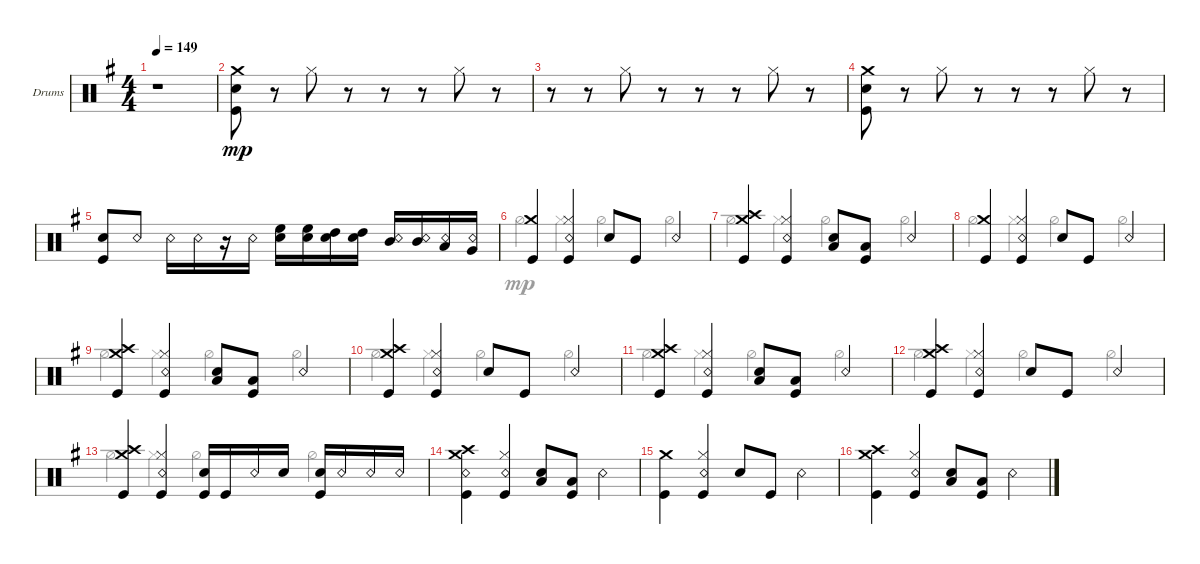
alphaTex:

\defaultSystemsLayout 4
\bracketExtendMode groupsimilarinstruments
\firstSystemTrackNameOrientation horizontal
\otherSystemsTrackNameOrientation horizontal
\track ("Drumkit" "Drums") {instrument percussion}
\staff {score}
\articulation defaults
\voice
\ts (4 4)
\tempo 149
\clef neutral
\scale
0.670588
\ks eminor
r.1{dy mp} |
\scale
0.329412 ("Kick (hit)" "Snare (hit) 2" "Crash medium (hit)").8 r.8 "Hi-Hat (closed)".8 r.8 r.8 r.8 "Hi-Hat (closed)".8 r.8 |
\scale
0.5 r.8 r.8 "Hi-Hat (closed)".8 r.8 r.8 r.8 "Hi-Hat (closed)".8 r.8 |
\scale
0.5 ("Kick (hit)" "Snare (hit) 2" "Crash medium (hit)").8 r.8 "Hi-Hat (closed)".8 r.8 r.8 r.8 "Hi-Hat (closed)".8 r.8 |
\scale
0.5 ("Kick (hit)" "Snare (hit) 2").8 "Snare (rim shot)".8 "Snare (rim shot)".16 "Snare (rim shot)".16 r.16 "Snare (rim shot)".16 ("Snare (hit) 2" "High Floor Tom (hit)").16 ("Snare (hit) 2" "High Floor Tom (hit)").16 ("Snare (hit) 2" "High Tom (hit)").16 ("Snare (hit) 2" "High Tom (hit)").16 ("Snare (rim shot)" "Mid Tom (hit)").16 ("Snare (rim shot)" "Mid Tom (hit)").16 ("Snare (rim shot)" "Low Tom (hit)").16 ("Snare (rim shot)" "Very Low Tom (hit)").16 |
\scale
0.5 ("Kick (hit)" "Crash medium (hit)").4 ("Snare (rim shot)" "Hi-Hat (closed)" "Kick (hit)").4 "Snare (hit) 2".8 "Kick (hit)".8 "Snare (rim shot)".4 |
\scale
0.5 ("Kick (hit)" "Crash medium (hit)" "Crash high (hit)").4 ("Snare (rim shot)" "Hi-Hat (closed)" "Kick (hit)").4 ("Snare (hit) 2" "Low Tom (hit)").8 ("Kick (hit)" "Low Tom (hit)").8 "Snare (rim shot)".4 |
\scale
0.5 ("Kick (hit)" "Crash medium (hit)").4 ("Snare (rim shot)" "Hi-Hat (closed)" "Kick (hit)").4 "Snare (hit) 2".8 "Kick (hit)".8 "Snare (rim shot)".4 |
\scale
0.5 ("Kick (hit)" "Crash medium (hit)" "Crash high (hit)").4 ("Snare (rim shot)" "Hi-Hat (closed)" "Kick (hit)").4 ("Snare (hit) 2" "Low Tom (hit)").8 ("Kick (hit)" "Low Tom (hit)").8 "Snare (rim shot)".4 |
\scale
0.5 ("Kick (hit)" "Crash medium (hit)" "Crash high (hit)").4 ("Snare (rim shot)" "Hi-Hat (closed)" "Kick (hit)").4 "Snare (hit) 2".8 "Kick (hit)".8 "Snare (rim shot)".4 |
\scale
0.5 ("Kick (hit)" "Crash medium (hit)" "Crash high (hit)").4 ("Snare (rim shot)" "Hi-Hat (closed)" "Kick (hit)").4 ("Snare (hit) 2" "Low Tom (hit)").8 ("Kick (hit)" "Low Tom (hit)").8 "Snare (rim shot)".4 |
\scale
0.5 ("Kick (hit)" "Crash medium (hit)" "Crash high (hit)").4 ("Snare (rim shot)" "Hi-Hat (closed)" "Kick (hit)").4 "Snare (hit) 2".8 "Kick (hit)".8 "Snare (rim shot)".4 |
\scale
0.5 ("Kick (hit)" "Crash medium (hit)" "Crash high (hit)").4 ("Snare (rim shot)" "Hi-Hat (closed)" "Kick (hit)").4 ("Snare (hit) 2" "Kick (hit)").16 "Kick (hit)".16 "Snare (rim shot)".16 "Snare (hit) 2".16 ("Snare (hit) 2" "Kick (hit)").16 "Snare (rim shot)".16 "Snare (rim shot)".16 "Snare (rim shot)".16 |
\scale
0.5 ("Kick (hit)" "Crash high (hit)" "Crash medium (hit)" "Snare (rim shot)").4 ("Snare (rim shot)" "Hi-Hat (closed)" "Kick (hit)").4 ("Snare (hit) 2" "Low Tom (hit)").8 ("Kick (hit)" "Low Tom (hit)").8 "Snare (rim shot)".4 |
\scale
0.5 ("Kick (hit)" "Crash medium (hit)").4 ("Snare (rim shot)" "Hi-Hat (closed)" "Kick (hit)").4 "Snare (hit) 2".8 "Kick (hit)".8 "Snare (rim shot)".4 |
\scale
0.5 ("Kick (hit)" "Crash medium (hit)" "Crash high (hit)").4 ("Snare (rim shot)" "Hi-Hat (closed)" "Kick (hit)").4 ("Snare (hit) 2" "Low Tom (hit)").8 ("Kick (hit)" "Low Tom (hit)").8 "Snare (rim shot)".4
\voice
\clef neutral
\ottava regular
\simile none
\scale
0.670588
\ks eminor
|
\scale
0.329412 |
\scale
0.5 |
\scale
0.5 |
\scale
0.5 |
\scale
0.5 "Hi-Hat (half)".4 "Hi-Hat (closed)".4 "Hi-Hat (half)".4 "Hi-Hat (half)".4 |
\scale
0.5 "Hi-Hat (half)".4 "Hi-Hat (closed)".4 "Hi-Hat (half)".4 "Hi-Hat (half)".4 |
\scale
0.5 "Hi-Hat (half)".4 "Hi-Hat (closed)".4 "Hi-Hat (half)".4 "Hi-Hat (half)".4 |
\scale
0.5 "Hi-Hat (half)".4 "Hi-Hat (closed)".4 "Hi-Hat (half)".4 "Hi-Hat (half)".4 |
\scale
0.5 "Hi-Hat (half)".4 "Hi-Hat (closed)".4 "Hi-Hat (half)".4 "Hi-Hat (half)".4 |
\scale
0.5 "Hi-Hat (half)".4 "Hi-Hat (closed)".4 "Hi-Hat (half)".4 "Hi-Hat (half)".4 |
\scale
0.5 "Hi-Hat (half)".4 "Hi-Hat (closed)".4 "Hi-Hat (half)".4 "Hi-Hat (half)".4 |
\scale
0.5 "Hi-Hat (half)".4 "Hi-Hat (closed)".4 "Hi-Hat (half)".4 "Hi-Hat (half)".4 |
\scale
0.5 |
\scale
0.5 |
\scale
0.5
